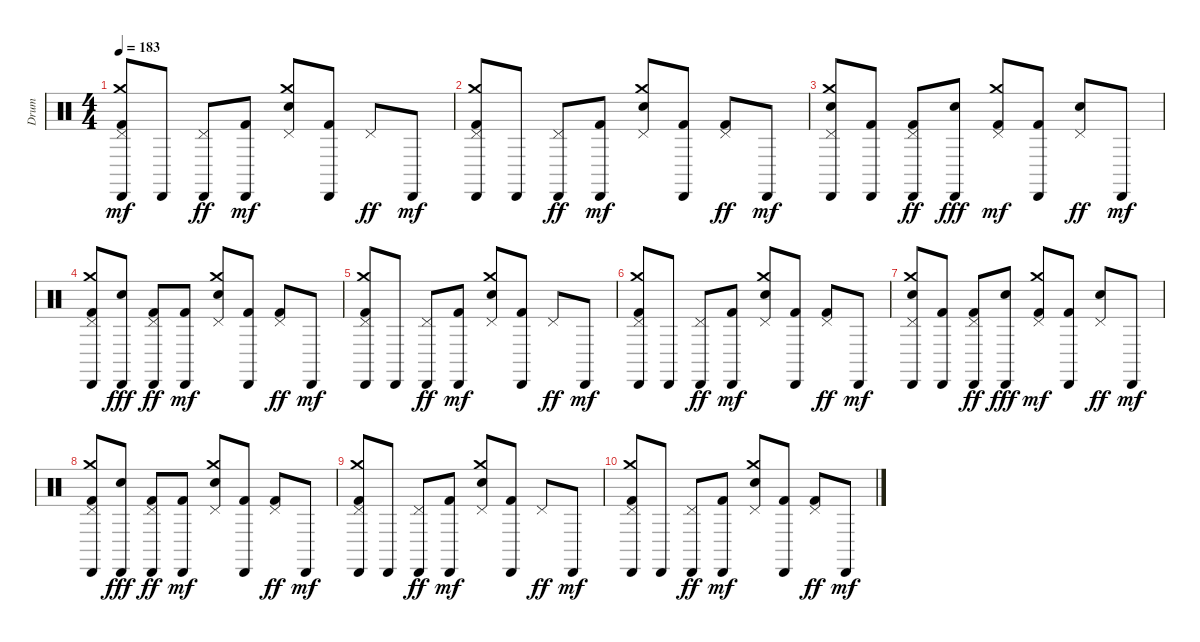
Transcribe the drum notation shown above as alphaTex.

\track ("Drum" "Drum") {instrument percussion}
\staff {score}
\articulation defaults
\ts (4 4)
\tempo 183
\clef neutral
\ks c
("Cabasa (hit)" "Kick (hit) 2" "Pedal Hi-Hat (hit)" "Crash medium (hit)").8{dy mf} "Cabasa (hit)".8 ("Cabasa (hit)" "Pedal Hi-Hat (hit)").8{dy ff} ("Cabasa (hit)" "Kick (hit) 2").8{dy mf} ("Electric Snare (hit)" "Pedal Hi-Hat (hit)" "Crash medium (hit)").8 ("Cabasa (hit)" "Kick (hit) 2").8 "Pedal Hi-Hat (hit)".8{dy ff} "Cabasa (hit)".8{dy mf} |
("Cabasa (hit)" "Kick (hit) 2" "Pedal Hi-Hat (hit)" "Crash medium (hit)").8 "Cabasa (hit)".8 ("Cabasa (hit)" "Pedal Hi-Hat (hit)").8{dy ff} ("Cabasa (hit)" "Kick (hit) 2").8{dy mf} ("Electric Snare (hit)" "Pedal Hi-Hat (hit)" "Crash medium (hit)").8 ("Cabasa (hit)" "Kick (hit) 2").8 ("Kick (hit) 2" "Pedal Hi-Hat (hit)").8{dy ff} "Cabasa (hit)".8{dy mf} |
("Cabasa (hit)" "Electric Snare (hit)" "Pedal Hi-Hat (hit)" "Crash medium (hit)").8{volume 12} ("Cabasa (hit)" "Kick (hit) 2").8{volume 12} ("Cabasa (hit)" "Kick (hit) 2" "Pedal Hi-Hat (hit)").8{dy ff volume 12} ("Cabasa (hit)" "Electric Snare (hit)").8{dy fff volume 12} ("Kick (hit) 2" "Pedal Hi-Hat (hit)" "Crash medium (hit)").8{dy mf volume 12} ("Cabasa (hit)" "Kick (hit) 2").8{volume 12} ("Electric Snare (hit)" "Pedal Hi-Hat (hit)").8{dy ff volume 11} "Cabasa (hit)".8{dy mf volume 11} |
("Cabasa (hit)" "Kick (hit) 2" "Pedal Hi-Hat (hit)" "Crash medium (hit)").8{volume 11} ("Cabasa (hit)" "Electric Snare (hit)").8{dy fff volume 11} ("Cabasa (hit)" "Kick (hit) 2" "Pedal Hi-Hat (hit)").8{dy ff volume 10} ("Cabasa (hit)" "Kick (hit) 2").8{dy mf volume 10} ("Electric Snare (hit)" "Pedal Hi-Hat (hit)" "Crash medium (hit)").8{volume 10} ("Cabasa (hit)" "Kick (hit) 2").8{volume 10} ("Kick (hit) 2" "Pedal Hi-Hat (hit)").8{dy ff volume 10} "Cabasa (hit)".8{dy mf volume 10} |
("Cabasa (hit)" "Kick (hit) 2" "Pedal Hi-Hat (hit)" "Crash medium (hit)").8{volume 9} "Cabasa (hit)".8{volume 9} ("Cabasa (hit)" "Pedal Hi-Hat (hit)").8{dy ff volume 9} ("Cabasa (hit)" "Kick (hit) 2").8{dy mf volume 9} ("Electric Snare (hit)" "Pedal Hi-Hat (hit)" "Crash medium (hit)").8{volume 8} ("Cabasa (hit)" "Kick (hit) 2").8{volume 8} "Pedal Hi-Hat (hit)".8{dy ff volume 8} "Cabasa (hit)".8{dy mf volume 8} |
("Cabasa (hit)" "Kick (hit) 2" "Pedal Hi-Hat (hit)" "Crash medium (hit)").8{volume 8} "Cabasa (hit)".8{volume 8} ("Cabasa (hit)" "Pedal Hi-Hat (hit)").8{dy ff volume 7} ("Cabasa (hit)" "Kick (hit) 2").8{dy mf volume 7} ("Electric Snare (hit)" "Pedal Hi-Hat (hit)" "Crash medium (hit)").8{volume 7} ("Cabasa (hit)" "Kick (hit) 2").8{volume 7} ("Kick (hit) 2" "Pedal Hi-Hat (hit)").8{dy ff volume 7} "Cabasa (hit)".8{dy mf volume 6} |
("Cabasa (hit)" "Electric Snare (hit)" "Pedal Hi-Hat (hit)" "Crash medium (hit)").8{volume 6} ("Cabasa (hit)" "Kick (hit) 2").8{volume 6} ("Cabasa (hit)" "Kick (hit) 2" "Pedal Hi-Hat (hit)").8{dy ff volume 6} ("Cabasa (hit)" "Electric Snare (hit)").8{dy fff volume 6} ("Kick (hit) 2" "Pedal Hi-Hat (hit)" "Crash medium (hit)").8{dy mf volume 5} ("Cabasa (hit)" "Kick (hit) 2").8{volume 5} ("Electric Snare (hit)" "Pedal Hi-Hat (hit)").8{dy ff volume 5} "Cabasa (hit)".8{dy mf volume 5} |
("Cabasa (hit)" "Kick (hit) 2" "Pedal Hi-Hat (hit)" "Crash medium (hit)").8{volume 5} ("Cabasa (hit)" "Electric Snare (hit)").8{dy fff volume 4} ("Cabasa (hit)" "Kick (hit) 2" "Pedal Hi-Hat (hit)").8{dy ff volume 4} ("Cabasa (hit)" "Kick (hit) 2").8{dy mf volume 4} ("Electric Snare (hit)" "Pedal Hi-Hat (hit)" "Crash medium (hit)").8{volume 4} ("Cabasa (hit)" "Kick (hit) 2").8{volume 4} ("Kick (hit) 2" "Pedal Hi-Hat (hit)").8{dy ff volume 4} "Cabasa (hit)".8{dy mf volume 3} |
("Cabasa (hit)" "Kick (hit) 2" "Pedal Hi-Hat (hit)" "Crash medium (hit)").8{volume 3} "Cabasa (hit)".8{volume 3} ("Cabasa (hit)" "Pedal Hi-Hat (hit)").8{dy ff volume 3} ("Cabasa (hit)" "Kick (hit) 2").8{dy mf volume 2} ("Electric Snare (hit)" "Pedal Hi-Hat (hit)" "Crash medium (hit)").8{volume 2} ("Cabasa (hit)" "Kick (hit) 2").8{volume 2} "Pedal Hi-Hat (hit)".8{dy ff volume 2} "Cabasa (hit)".8{dy mf volume 2} |
("Cabasa (hit)" "Kick (hit) 2" "Pedal Hi-Hat (hit)" "Crash medium (hit)").8{volume 2} "Cabasa (hit)".8{volume 1} ("Cabasa (hit)" "Pedal Hi-Hat (hit)").8{dy ff volume 1} ("Cabasa (hit)" "Kick (hit) 2").8{dy mf volume 1} ("Electric Snare (hit)" "Pedal Hi-Hat (hit)" "Crash medium (hit)").8{volume 1} ("Cabasa (hit)" "Kick (hit) 2").8{volume 0} ("Kick (hit) 2" "Pedal Hi-Hat (hit)").8{dy ff volume 0} "Cabasa (hit)".8{dy mf volume 0}
